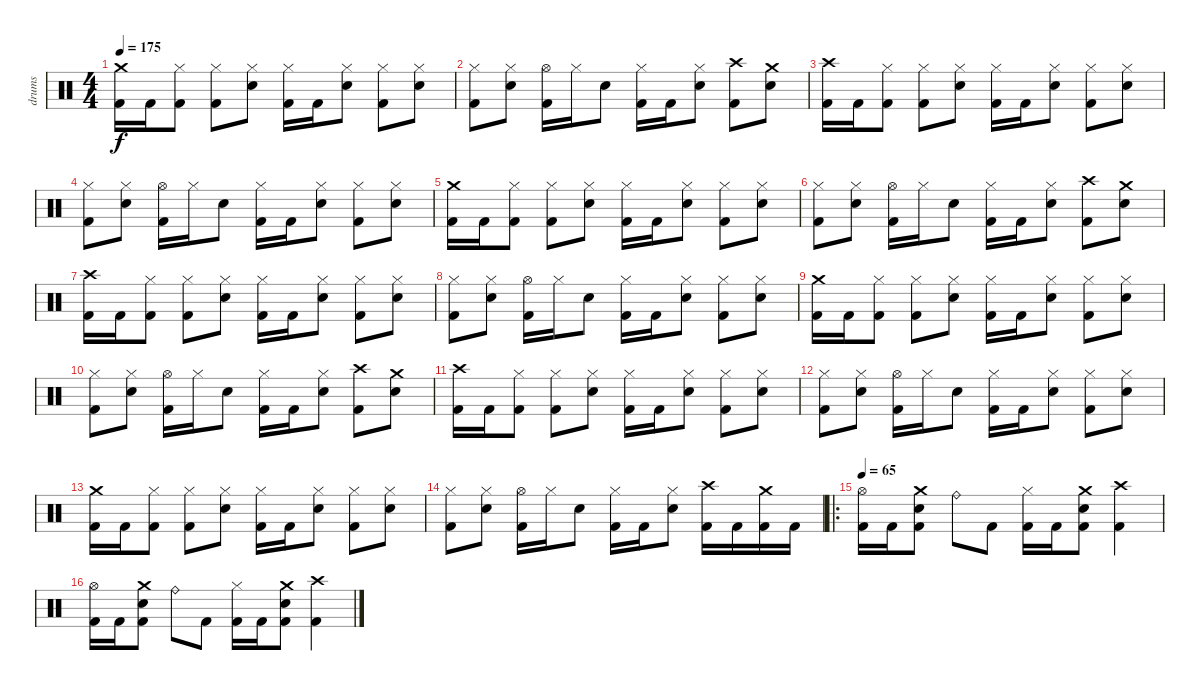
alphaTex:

\track ("drums" "drums") {instrument percussion}
\staff {score}
\articulation defaults
\ts (4 4)
\tempo 175
\clef neutral
\ks c
("Crash medium (hit)" "Kick (hit) 2").16{dy f} "Kick (hit) 2".16 ("Hi-Hat (closed)" "Kick (hit) 2").8 ("Hi-Hat (closed)" "Kick (hit) 2").8 ("Hi-Hat (closed)" "Electric Snare (hit)").8 ("Hi-Hat (closed)" "Kick (hit) 2").16 "Kick (hit) 2".16 ("Hi-Hat (closed)" "Electric Snare (hit)").8 ("Hi-Hat (closed)" "Kick (hit) 2").8 ("Hi-Hat (closed)" "Electric Snare (hit)").8 |
("Hi-Hat (closed)" "Kick (hit) 2").8 ("Hi-Hat (closed)" "Electric Snare (hit)").8 ("Hi-Hat (open)" "Kick (hit) 2").16 "Hi-Hat (closed)".16 "Electric Snare (hit)".8 ("Hi-Hat (closed)" "Kick (hit) 2").16 "Kick (hit) 2".16 ("Hi-Hat (closed)" "Electric Snare (hit)").8 ("Crash high (hit)" "Kick (hit) 2").8 ("Crash medium (hit)" "Electric Snare (hit)").8 |
("Crash high (hit)" "Kick (hit) 2").16 "Kick (hit) 2".16 ("Hi-Hat (closed)" "Kick (hit) 2").8 ("Hi-Hat (closed)" "Kick (hit) 2").8 ("Hi-Hat (closed)" "Electric Snare (hit)").8 ("Hi-Hat (closed)" "Kick (hit) 2").16 "Kick (hit) 2".16 ("Hi-Hat (closed)" "Electric Snare (hit)").8 ("Hi-Hat (closed)" "Kick (hit) 2").8 ("Hi-Hat (closed)" "Electric Snare (hit)").8 |
("Hi-Hat (closed)" "Kick (hit) 2").8 ("Hi-Hat (closed)" "Electric Snare (hit)").8 ("Hi-Hat (open)" "Kick (hit) 2").16 "Hi-Hat (closed)".16 "Electric Snare (hit)".8 ("Hi-Hat (closed)" "Kick (hit) 2").16 "Kick (hit) 2".16 ("Hi-Hat (closed)" "Electric Snare (hit)").8 ("Hi-Hat (closed)" "Kick (hit) 2").8 ("Hi-Hat (closed)" "Electric Snare (hit)").8 |
("Crash medium (hit)" "Kick (hit) 2").16 "Kick (hit) 2".16 ("Hi-Hat (closed)" "Kick (hit) 2").8 ("Hi-Hat (closed)" "Kick (hit) 2").8 ("Hi-Hat (closed)" "Electric Snare (hit)").8 ("Hi-Hat (closed)" "Kick (hit) 2").16 "Kick (hit) 2".16 ("Hi-Hat (closed)" "Electric Snare (hit)").8 ("Hi-Hat (closed)" "Kick (hit) 2").8 ("Hi-Hat (closed)" "Electric Snare (hit)").8 |
("Hi-Hat (closed)" "Kick (hit) 2").8 ("Hi-Hat (closed)" "Electric Snare (hit)").8 ("Hi-Hat (open)" "Kick (hit) 2").16 "Hi-Hat (closed)".16 "Electric Snare (hit)".8 ("Hi-Hat (closed)" "Kick (hit) 2").16 "Kick (hit) 2".16 ("Hi-Hat (closed)" "Electric Snare (hit)").8 ("Crash high (hit)" "Kick (hit) 2").8 ("Crash medium (hit)" "Electric Snare (hit)").8 |
("Crash high (hit)" "Kick (hit) 2").16 "Kick (hit) 2".16 ("Hi-Hat (closed)" "Kick (hit) 2").8 ("Hi-Hat (closed)" "Kick (hit) 2").8 ("Hi-Hat (closed)" "Electric Snare (hit)").8 ("Hi-Hat (closed)" "Kick (hit) 2").16 "Kick (hit) 2".16 ("Hi-Hat (closed)" "Electric Snare (hit)").8 ("Hi-Hat (closed)" "Kick (hit) 2").8 ("Hi-Hat (closed)" "Electric Snare (hit)").8 |
("Hi-Hat (closed)" "Kick (hit) 2").8 ("Hi-Hat (closed)" "Electric Snare (hit)").8 ("Hi-Hat (open)" "Kick (hit) 2").16 "Hi-Hat (closed)".16 "Electric Snare (hit)".8 ("Hi-Hat (closed)" "Kick (hit) 2").16 "Kick (hit) 2".16 ("Hi-Hat (closed)" "Electric Snare (hit)").8 ("Hi-Hat (closed)" "Kick (hit) 2").8 ("Hi-Hat (closed)" "Electric Snare (hit)").8 |
("Crash medium (hit)" "Kick (hit) 2").16 "Kick (hit) 2".16 ("Hi-Hat (closed)" "Kick (hit) 2").8 ("Hi-Hat (closed)" "Kick (hit) 2").8 ("Hi-Hat (closed)" "Electric Snare (hit)").8 ("Hi-Hat (closed)" "Kick (hit) 2").16 "Kick (hit) 2".16 ("Hi-Hat (closed)" "Electric Snare (hit)").8 ("Hi-Hat (closed)" "Kick (hit) 2").8 ("Hi-Hat (closed)" "Electric Snare (hit)").8 |
("Hi-Hat (closed)" "Kick (hit) 2").8 ("Hi-Hat (closed)" "Electric Snare (hit)").8 ("Hi-Hat (open)" "Kick (hit) 2").16 "Hi-Hat (closed)".16 "Electric Snare (hit)".8 ("Hi-Hat (closed)" "Kick (hit) 2").16 "Kick (hit) 2".16 ("Hi-Hat (closed)" "Electric Snare (hit)").8 ("Crash high (hit)" "Kick (hit) 2").8 ("Crash medium (hit)" "Electric Snare (hit)").8 |
("Crash high (hit)" "Kick (hit) 2").16 "Kick (hit) 2".16 ("Hi-Hat (closed)" "Kick (hit) 2").8 ("Hi-Hat (closed)" "Kick (hit) 2").8 ("Hi-Hat (closed)" "Electric Snare (hit)").8 ("Hi-Hat (closed)" "Kick (hit) 2").16 "Kick (hit) 2".16 ("Hi-Hat (closed)" "Electric Snare (hit)").8 ("Hi-Hat (closed)" "Kick (hit) 2").8 ("Hi-Hat (closed)" "Electric Snare (hit)").8 |
("Hi-Hat (closed)" "Kick (hit) 2").8 ("Hi-Hat (closed)" "Electric Snare (hit)").8 ("Hi-Hat (open)" "Kick (hit) 2").16 "Hi-Hat (closed)".16 "Electric Snare (hit)".8 ("Hi-Hat (closed)" "Kick (hit) 2").16 "Kick (hit) 2".16 ("Hi-Hat (closed)" "Electric Snare (hit)").8 ("Hi-Hat (closed)" "Kick (hit) 2").8 ("Hi-Hat (closed)" "Electric Snare (hit)").8 |
("Crash medium (hit)" "Kick (hit) 2").16 "Kick (hit) 2".16 ("Hi-Hat (closed)" "Kick (hit) 2").8 ("Hi-Hat (closed)" "Kick (hit) 2").8 ("Hi-Hat (closed)" "Electric Snare (hit)").8 ("Hi-Hat (closed)" "Kick (hit) 2").16 "Kick (hit) 2".16 ("Hi-Hat (closed)" "Electric Snare (hit)").8 ("Hi-Hat (closed)" "Kick (hit) 2").8 ("Hi-Hat (closed)" "Electric Snare (hit)").8 |
("Hi-Hat (closed)" "Kick (hit) 2").8 ("Hi-Hat (closed)" "Electric Snare (hit)").8 ("Hi-Hat (open)" "Kick (hit) 2").16 "Hi-Hat (closed)".16 "Electric Snare (hit)".8 ("Hi-Hat (closed)" "Kick (hit) 2").16 "Kick (hit) 2".16 ("Hi-Hat (closed)" "Electric Snare (hit)").8 ("Crash high (hit)" "Kick (hit) 2").16 "Kick (hit) 2".16 ("Crash medium (hit)" "Kick (hit) 2").16 "Kick (hit) 2".16 |
\ro
\tempo 65
("Hi-Hat (open)" "Kick (hit) 2").16 "Kick (hit) 2".16 ("Crash medium (hit)" "Electric Snare (hit)" "Kick (hit) 2").8 "Ride (bell)".8 "Kick (hit) 2".8 ("Hi-Hat (closed)" "Kick (hit) 2").16 "Kick (hit) 2".16 ("Crash medium (hit)" "Electric Snare (hit)" "Kick (hit) 2").8 ("Crash high (hit)" "Kick (hit) 2").4 |
("Hi-Hat (open)" "Kick (hit) 2").16 "Kick (hit) 2".16 ("Crash medium (hit)" "Electric Snare (hit)" "Kick (hit) 2").8 "Ride (bell)".8 "Kick (hit) 2".8 ("Hi-Hat (closed)" "Kick (hit) 2").16 "Kick (hit) 2".16 ("Crash medium (hit)" "Electric Snare (hit)" "Kick (hit) 2").8 ("Crash high (hit)" "Kick (hit) 2").4
